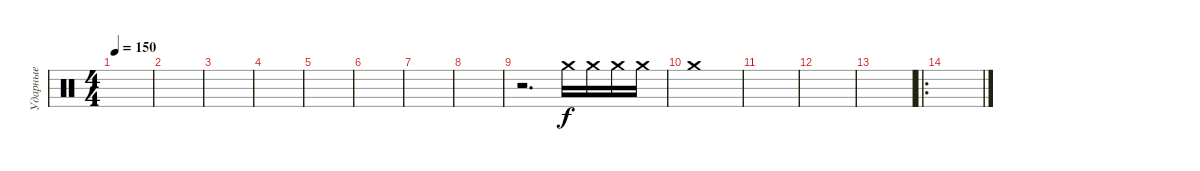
\track ("Ударные" "Ударные") {instrument percussion}
\staff {score}
\articulation defaults
\ts (4 4)
\tempo 150
\clef neutral
\ks c
|
|
|
|
|
|
|
|
r.2{d} "Crash medium (hit)".16 "Crash medium (hit)".16 "Crash medium (hit)".16 "Crash medium (hit)".16 |
"Crash medium (hit)".1 |
|
|
|
\ro
